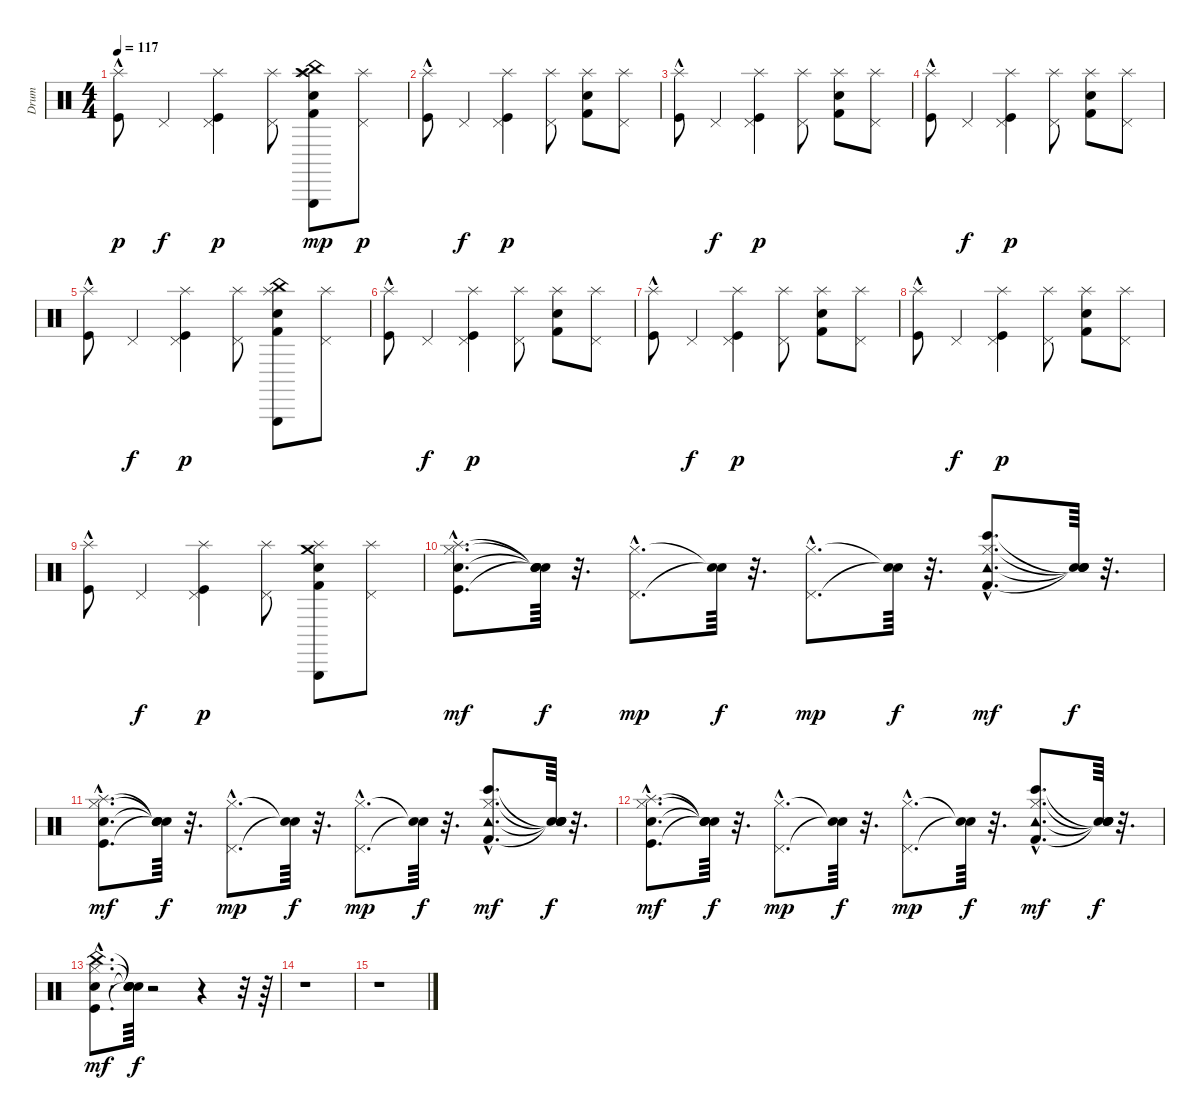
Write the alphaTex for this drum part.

\track ("Drum" "Drum") {instrument percussion}
\staff {score}
\articulation defaults
\ts (4 4)
\tempo 117
\clef neutral
\ks c
("Splash (hit)" "Kick (hit)"{hac}).8{dy p} "Pedal Hi-Hat (hit)".4{dy f} ("Splash (hit)" "Pedal Hi-Hat (hit)" "Kick (hit)").4{dy p} ("Splash (hit)" "Pedal Hi-Hat (hit)").8 ("Triangle (hit)" "Kick (hit) 2" "Splash (hit)" "Crash high (hit)" "China (hit)" "Snare (hit) 2").8{dy mp} ("Splash (hit)" "Pedal Hi-Hat (hit)").8{dy p} |
("Splash (hit)" "Kick (hit)"{hac}).8 "Pedal Hi-Hat (hit)".4{dy f} ("Splash (hit)" "Pedal Hi-Hat (hit)" "Kick (hit)").4{dy p} ("Splash (hit)" "Pedal Hi-Hat (hit)").8 ("Kick (hit) 2" "Splash (hit)" "Snare (hit) 2").8 ("Splash (hit)" "Pedal Hi-Hat (hit)").8 |
("Splash (hit)" "Kick (hit)"{hac}).8 "Pedal Hi-Hat (hit)".4{dy f} ("Splash (hit)" "Pedal Hi-Hat (hit)" "Kick (hit)").4{dy p} ("Splash (hit)" "Pedal Hi-Hat (hit)").8 ("Kick (hit) 2" "Splash (hit)" "Snare (hit) 2").8 ("Splash (hit)" "Pedal Hi-Hat (hit)").8 |
("Splash (hit)" "Kick (hit)"{hac}).8 "Pedal Hi-Hat (hit)".4{dy f} ("Splash (hit)" "Pedal Hi-Hat (hit)" "Kick (hit)").4{dy p} ("Splash (hit)" "Pedal Hi-Hat (hit)").8 ("Kick (hit) 2" "Splash (hit)" "Snare (hit) 2").8 ("Splash (hit)" "Pedal Hi-Hat (hit)").8 |
("Splash (hit)" "Kick (hit)"{hac}).8 "Pedal Hi-Hat (hit)".4{dy f} ("Splash (hit)" "Pedal Hi-Hat (hit)" "Kick (hit)").4{dy p} ("Splash (hit)" "Pedal Hi-Hat (hit)").8 ("Triangle (hit)" "Kick (hit) 2" "Splash (hit)" "China (hit)" "Snare (hit) 2").8 ("Splash (hit)" "Pedal Hi-Hat (hit)").8 |
("Splash (hit)" "Kick (hit)"{hac}).8 "Pedal Hi-Hat (hit)".4{dy f} ("Splash (hit)" "Pedal Hi-Hat (hit)" "Kick (hit)").4{dy p} ("Pedal Hi-Hat (hit)" "Splash (hit)").8 ("Splash (hit)" "Kick (hit) 2" "Snare (hit) 2").8 ("Splash (hit)" "Pedal Hi-Hat (hit)").8 |
("Splash (hit)" "Kick (hit)"{hac}).8 "Pedal Hi-Hat (hit)".4{dy f} ("Splash (hit)" "Pedal Hi-Hat (hit)" "Kick (hit)").4{dy p} ("Splash (hit)" "Pedal Hi-Hat (hit)").8 ("Kick (hit) 2" "Splash (hit)" "Snare (hit) 2").8 ("Splash (hit)" "Pedal Hi-Hat (hit)").8 |
("Splash (hit)" "Kick (hit)"{hac}).8 "Pedal Hi-Hat (hit)".4{dy f} ("Splash (hit)" "Pedal Hi-Hat (hit)" "Kick (hit)").4{dy p} ("Splash (hit)" "Pedal Hi-Hat (hit)").8 ("Kick (hit) 2" "Splash (hit)" "Snare (hit) 2").8 ("Splash (hit)" "Pedal Hi-Hat (hit)").8 |
("Splash (hit)" "Kick (hit)"{hac}).8 "Pedal Hi-Hat (hit)".4{dy f} ("Splash (hit)" "Pedal Hi-Hat (hit)" "Kick (hit)").4{dy p} ("Splash (hit)" "Pedal Hi-Hat (hit)").8 ("Triangle (hit)" "Kick (hit) 2" "Splash (hit)" "Crash medium (hit)" "Snare (hit) 2").8 ("Splash (hit)" "Pedal Hi-Hat (hit)").8 |
("Hi-Hat (closed)"{hac} "Kick (hit)"{hac} "Snare (hit) 2"{hac} "Splash (hit)"{hac}).8{d dy mf} ("Snare (hit)"{t} "Snare (hit)"{t} "Snare (hit)"{t} "Snare (hit)"{t}).64{dy f} r.32{d} ("Hi-Hat (closed)"{hac} "Pedal Hi-Hat (hit)"{hac}).8{d dy mp} ("Snare (hit)"{t} "Snare (hit)"{t}).64{dy f} r.32{d} ("Hi-Hat (closed)"{hac} "Pedal Hi-Hat (hit)"{hac}).8{d dy mp} ("Snare (hit)"{t} "Snare (hit)"{t}).64{dy f} r.32{d} ("Bongo High (hit)"{hac} "Kick (hit) 2"{hac} "Tambourine (hit)"{hac} "Hi-Hat (closed)"{hac}).8{d dy mf} ("Snare (hit)"{t} "Snare (hit)"{t} "Snare (hit)"{t} "Snare (hit)"{t}).64{dy f} r.32{d} |
("Splash (hit)"{hac} "Snare (hit) 2"{hac} "Kick (hit)"{hac} "Hi-Hat (closed)"{hac}).8{d dy mf} ("Snare (hit)"{t} "Snare (hit)"{t} "Snare (hit)"{t} "Snare (hit)"{t}).64{dy f} r.32{d} ("Pedal Hi-Hat (hit)"{hac} "Hi-Hat (closed)"{hac}).8{d dy mp} ("Snare (hit)"{t} "Snare (hit)"{t}).64{dy f} r.32{d} ("Pedal Hi-Hat (hit)"{hac} "Hi-Hat (closed)"{hac}).8{d dy mp} ("Snare (hit)"{t} "Snare (hit)"{t}).64{dy f} r.32{d} ("Hi-Hat (closed)"{hac} "Tambourine (hit)"{hac} "Kick (hit) 2"{hac} "Bongo High (hit)"{hac}).8{d dy mf} ("Snare (hit)"{t} "Snare (hit)"{t} "Snare (hit)"{t} "Snare (hit)"{t}).64{dy f} r.32{d} |
("Kick (hit)"{hac} "Hi-Hat (closed)"{hac} "Snare (hit) 2"{hac} "Splash (hit)"{hac}).8{d dy mf} ("Snare (hit)"{t} "Snare (hit)"{t} "Snare (hit)"{t} "Snare (hit)"{t}).64{dy f} r.32{d} ("Pedal Hi-Hat (hit)"{hac} "Hi-Hat (closed)"{hac}).8{d dy mp} ("Snare (hit)"{t} "Snare (hit)"{t}).64{dy f} r.32{d} ("Pedal Hi-Hat (hit)"{hac} "Hi-Hat (closed)"{hac}).8{d dy mp} ("Snare (hit)"{t} "Snare (hit)"{t}).64{dy f} r.32{d} ("Kick (hit) 2"{hac} "Tambourine (hit)"{hac} "Bongo High (hit)"{hac} "Hi-Hat (closed)"{hac}).8{d dy mf} ("Snare (hit)"{t} "Snare (hit)"{t} "Snare (hit)"{t} "Snare (hit)"{t}).64{dy f} r.32{d} |
("China (hit)"{hac} "Snare (hit) 2"{hac} "Kick (hit)"{hac} "Hi-Hat (closed)"{hac}).8{d dy mf} ("Snare (hit)"{t} "Snare (hit)"{t} "Snare (hit)"{t} "Snare (hit)"{t}).64{dy f} r.2 r.4 r.32 r.64 |
r.1 |
r.1
